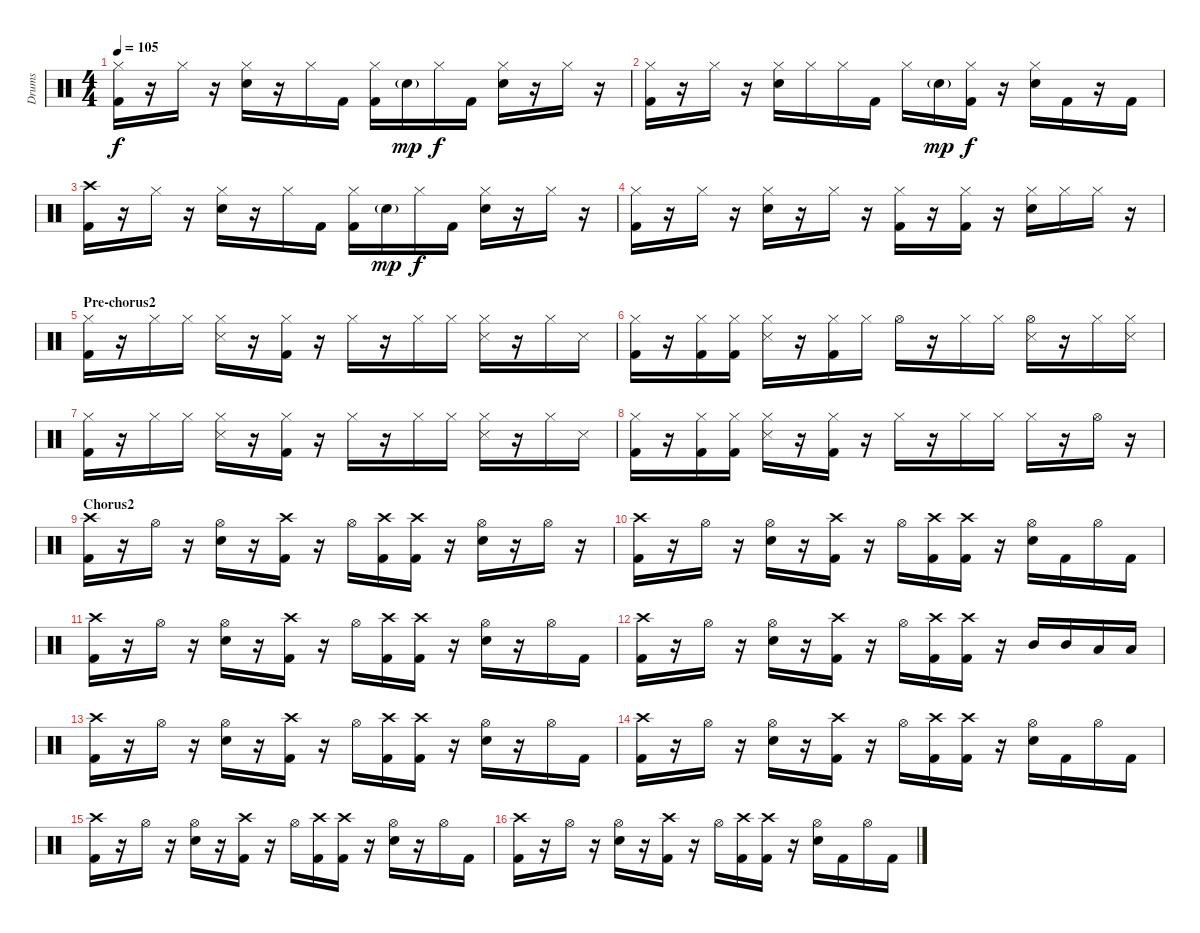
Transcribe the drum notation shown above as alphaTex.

\track ("Drums" "Drums") {instrument percussion}
\staff {score}
\articulation defaults
\ts (4 4)
\tempo 105
\clef neutral
\ks c
("Hi-Hat (closed)" "Kick (hit) 2").16{dy f} r.16 "Hi-Hat (closed)".16 r.16 ("Hi-Hat (closed)" "Electric Snare (hit)").16 r.16 "Hi-Hat (closed)".16 "Kick (hit) 2".16 ("Hi-Hat (closed)" "Kick (hit) 2").16 "Electric Snare (hit)"{g}.16{dy mp} "Hi-Hat (closed)".16{dy f} "Kick (hit) 2".16 ("Hi-Hat (closed)" "Electric Snare (hit)").16 r.16 "Hi-Hat (closed)".16 r.16 |
("Hi-Hat (closed)" "Kick (hit) 2").16 r.16 "Hi-Hat (closed)".16 r.16 ("Hi-Hat (closed)" "Electric Snare (hit)").16 "Hi-Hat (closed)".16 "Hi-Hat (closed)".16 "Kick (hit) 2".16 "Hi-Hat (closed)".16 "Electric Snare (hit)"{g}.16{dy mp} ("Hi-Hat (closed)" "Kick (hit) 2").16{dy f} r.16 ("Hi-Hat (closed)" "Electric Snare (hit)").16 "Kick (hit) 2".16 r.16 "Kick (hit) 2".16 |
("Crash high (hit)" "Kick (hit) 2").16 r.16 "Hi-Hat (closed)".16 r.16 ("Hi-Hat (closed)" "Electric Snare (hit)").16 r.16 "Hi-Hat (closed)".16 "Kick (hit) 2".16 ("Hi-Hat (closed)" "Kick (hit) 2").16 "Electric Snare (hit)"{g}.16{dy mp} "Hi-Hat (closed)".16{dy f} "Kick (hit) 2".16 ("Hi-Hat (closed)" "Electric Snare (hit)").16 r.16 "Hi-Hat (closed)".16 r.16 |
("Hi-Hat (closed)" "Kick (hit) 2").16 r.16 "Hi-Hat (closed)".16 r.16 ("Hi-Hat (closed)" "Electric Snare (hit)").16 r.16 "Hi-Hat (closed)".16 r.16 ("Hi-Hat (closed)" "Kick (hit) 2").16 r.16 ("Hi-Hat (closed)" "Kick (hit) 2").16 r.16 ("Hi-Hat (closed)" "Electric Snare (hit)").16 "Hi-Hat (closed)".16 "Hi-Hat (closed)".16 r.16 |
\section ("" "Pre-chorus2")
("Hi-Hat (closed)" "Kick (hit) 2").16 r.16 "Hi-Hat (closed)".16 "Hi-Hat (closed)".16 ("Hi-Hat (closed)" "Snare (side stick) 3").16 r.16 ("Hi-Hat (closed)" "Kick (hit) 2").16 r.16 "Hi-Hat (closed)".16 r.16 "Hi-Hat (closed)".16 "Hi-Hat (closed)".16 ("Hi-Hat (closed)" "Snare (side stick) 3").16 r.16 "Hi-Hat (closed)".16 "Snare (side stick) 3".16 |
("Hi-Hat (closed)" "Kick (hit) 2").16 r.16 ("Hi-Hat (closed)" "Kick (hit) 2").16 ("Hi-Hat (closed)" "Kick (hit) 2").16 ("Hi-Hat (closed)" "Snare (side stick) 3").16 r.16 ("Hi-Hat (closed)" "Kick (hit) 2").16 "Hi-Hat (closed)".16 "Hi-Hat (open)".16 r.16 "Hi-Hat (closed)".16 "Hi-Hat (closed)".16 ("Hi-Hat (open)" "Snare (side stick) 3").16 r.16 "Hi-Hat (closed)".16 ("Hi-Hat (closed)" "Snare (side stick) 3").16 |
("Hi-Hat (closed)" "Kick (hit) 2").16 r.16 "Hi-Hat (closed)".16 "Hi-Hat (closed)".16 ("Hi-Hat (closed)" "Snare (side stick) 3").16 r.16 ("Hi-Hat (closed)" "Kick (hit) 2").16 r.16 "Hi-Hat (closed)".16 r.16 "Hi-Hat (closed)".16 "Hi-Hat (closed)".16 ("Hi-Hat (closed)" "Snare (side stick) 3").16 r.16 "Hi-Hat (closed)".16 "Snare (side stick) 3".16 |
("Hi-Hat (closed)" "Kick (hit) 2").16 r.16 ("Hi-Hat (closed)" "Kick (hit) 2").16 ("Hi-Hat (closed)" "Kick (hit) 2").16 ("Hi-Hat (closed)" "Snare (side stick) 3").16 r.16 ("Hi-Hat (closed)" "Kick (hit) 2").16 r.16 "Hi-Hat (closed)".16 r.16 "Hi-Hat (closed)".16 "Hi-Hat (closed)".16 "Hi-Hat (closed)".16 r.16 "Hi-Hat (open)".16 r.16 |
\section ("" "Chorus2")
("Crash high (hit)" "Kick (hit) 2").16 r.16 "Hi-Hat (open)".16 r.16 ("Hi-Hat (open)" "Electric Snare (hit)").16 r.16 ("Crash high (hit)" "Kick (hit) 2").16 r.16 "Hi-Hat (open)".16 ("Crash high (hit)" "Kick (hit) 2").16 ("Crash high (hit)" "Kick (hit) 2").16 r.16 ("Hi-Hat (open)" "Electric Snare (hit)").16 r.16 "Hi-Hat (open)".16 r.16 |
("Crash high (hit)" "Kick (hit) 2").16 r.16 "Hi-Hat (open)".16 r.16 ("Hi-Hat (open)" "Electric Snare (hit)").16 r.16 ("Crash high (hit)" "Kick (hit) 2").16 r.16 "Hi-Hat (open)".16 ("Crash high (hit)" "Kick (hit) 2").16 ("Crash high (hit)" "Kick (hit) 2").16 r.16 ("Hi-Hat (open)" "Electric Snare (hit)").16 "Kick (hit) 2".16 "Hi-Hat (open)".16 "Kick (hit) 2".16 |
("Crash high (hit)" "Kick (hit) 2").16 r.16 "Hi-Hat (open)".16 r.16 ("Hi-Hat (open)" "Electric Snare (hit)").16 r.16 ("Crash high (hit)" "Kick (hit) 2").16 r.16 "Hi-Hat (open)".16 ("Crash high (hit)" "Kick (hit) 2").16 ("Crash high (hit)" "Kick (hit) 2").16 r.16 ("Hi-Hat (open)" "Electric Snare (hit)").16 r.16 "Hi-Hat (open)".16 "Kick (hit) 2".16 |
("Crash high (hit)" "Kick (hit) 2").16 r.16 "Hi-Hat (open)".16 r.16 ("Hi-Hat (open)" "Electric Snare (hit)").16 r.16 ("Crash high (hit)" "Kick (hit) 2").16 r.16 "Hi-Hat (open)".16 ("Crash high (hit)" "Kick (hit) 2").16 ("Crash high (hit)" "Kick (hit) 2").16 r.16 "Mid Tom (hit)".16 "Mid Tom (hit)".16 "Low Tom (hit)".16 "Low Tom (hit)".16 |
("Crash high (hit)" "Kick (hit) 2").16 r.16 "Hi-Hat (open)".16 r.16 ("Hi-Hat (open)" "Electric Snare (hit)").16 r.16 ("Crash high (hit)" "Kick (hit) 2").16 r.16 "Hi-Hat (open)".16 ("Crash high (hit)" "Kick (hit) 2").16 ("Crash high (hit)" "Kick (hit) 2").16 r.16 ("Hi-Hat (open)" "Electric Snare (hit)").16 r.16 "Hi-Hat (open)".16 "Kick (hit) 2".16 |
("Crash high (hit)" "Kick (hit) 2").16 r.16 "Hi-Hat (open)".16 r.16 ("Hi-Hat (open)" "Electric Snare (hit)").16 r.16 ("Crash high (hit)" "Kick (hit) 2").16 r.16 "Hi-Hat (open)".16 ("Crash high (hit)" "Kick (hit) 2").16 ("Crash high (hit)" "Kick (hit) 2").16 r.16 ("Hi-Hat (open)" "Electric Snare (hit)").16 "Kick (hit) 2".16 "Hi-Hat (open)".16 "Kick (hit) 2".16 |
("Crash high (hit)" "Kick (hit) 2").16 r.16 "Hi-Hat (open)".16 r.16 ("Hi-Hat (open)" "Electric Snare (hit)").16 r.16 ("Crash high (hit)" "Kick (hit) 2").16 r.16 "Hi-Hat (open)".16 ("Crash high (hit)" "Kick (hit) 2").16 ("Crash high (hit)" "Kick (hit) 2").16 r.16 ("Hi-Hat (open)" "Electric Snare (hit)").16 r.16 "Hi-Hat (open)".16 "Kick (hit) 2".16 |
("Crash high (hit)" "Kick (hit) 2").16 r.16 "Hi-Hat (open)".16 r.16 ("Hi-Hat (open)" "Electric Snare (hit)").16 r.16 ("Crash high (hit)" "Kick (hit) 2").16 r.16 "Hi-Hat (open)".16 ("Crash high (hit)" "Kick (hit) 2").16 ("Crash high (hit)" "Kick (hit) 2").16 r.16 ("Hi-Hat (open)" "Electric Snare (hit)").16 "Kick (hit) 2".16 "Hi-Hat (open)".16 "Kick (hit) 2".16
